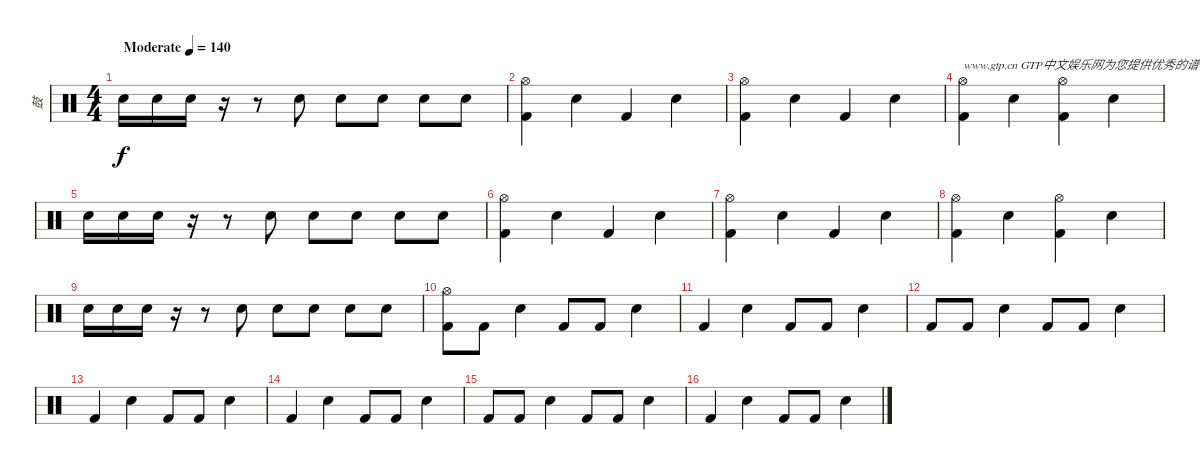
\track ("鼓" "鼓") {instrument percussion}
\staff {score}
\articulation defaults
\ts (4 4)
\tempo (140 "Moderate")
\clef neutral
\ks c "Electric Snare (hit)".16{dy f} "Electric Snare (hit)".16 "Electric Snare (hit)".16
r.16 r.8 "Electric Snare (hit)".8 "Electric Snare (hit)".8 "Electric Snare (hit)".8 "Electric Snare (hit)".8 "Electric Snare (hit)".8 |
("Hi-Hat (open)" "Kick (hit) 2").4 "Electric Snare (hit)".4 "Kick (hit) 2".4 "Electric Snare (hit)".4 |
("Hi-Hat (open)" "Kick (hit) 2").4 "Electric Snare (hit)".4 "Kick (hit) 2".4 "Electric Snare (hit)".4 |
("Hi-Hat (open)" "Kick (hit) 2").4{txt "www.gtp.cn GTP中文娱乐网为您提供优秀的谱子"} "Electric Snare (hit)".4 ("Hi-Hat (open)" "Kick (hit) 2").4 "Electric Snare (hit)".4 |
"Electric Snare (hit)".16 "Electric Snare (hit)".16 "Electric Snare (hit)".16 r.16 r.8 "Electric Snare (hit)".8 "Electric Snare (hit)".8 "Electric Snare (hit)".8 "Electric Snare (hit)".8 "Electric Snare (hit)".8 |
("Hi-Hat (open)" "Kick (hit) 2").4 "Electric Snare (hit)".4 "Kick (hit) 2".4 "Electric Snare (hit)".4 |
("Hi-Hat (open)" "Kick (hit) 2").4 "Electric Snare (hit)".4 "Kick (hit) 2".4 "Electric Snare (hit)".4 |
("Hi-Hat (open)" "Kick (hit) 2").4 "Electric Snare (hit)".4 ("Hi-Hat (open)" "Kick (hit) 2").4 "Electric Snare (hit)".4 |
"Electric Snare (hit)".16 "Electric Snare (hit)".16 "Electric Snare (hit)".16 r.16 r.8 "Electric Snare (hit)".8 "Electric Snare (hit)".8 "Electric Snare (hit)".8 "Electric Snare (hit)".8 "Electric Snare (hit)".8 |
("Hi-Hat (open)" "Kick (hit) 2").8 "Kick (hit) 2".8 "Electric Snare (hit)".4 "Kick (hit) 2".8 "Kick (hit) 2".8 "Electric Snare (hit)".4 |
"Kick (hit) 2".4 "Electric Snare (hit)".4 "Kick (hit) 2".8 "Kick (hit) 2".8 "Electric Snare (hit)".4 |
"Kick (hit) 2".8 "Kick (hit) 2".8 "Electric Snare (hit)".4 "Kick (hit) 2".8 "Kick (hit) 2".8 "Electric Snare (hit)".4 |
"Kick (hit) 2".4 "Electric Snare (hit)".4 "Kick (hit) 2".8 "Kick (hit) 2".8 "Electric Snare (hit)".4 |
"Kick (hit) 2".4 "Electric Snare (hit)".4 "Kick (hit) 2".8 "Kick (hit) 2".8 "Electric Snare (hit)".4 |
"Kick (hit) 2".8 "Kick (hit) 2".8 "Electric Snare (hit)".4 "Kick (hit) 2".8 "Kick (hit) 2".8 "Electric Snare (hit)".4 |
"Kick (hit) 2".4 "Electric Snare (hit)".4 "Kick (hit) 2".8 "Kick (hit) 2".8 "Electric Snare (hit)".4
